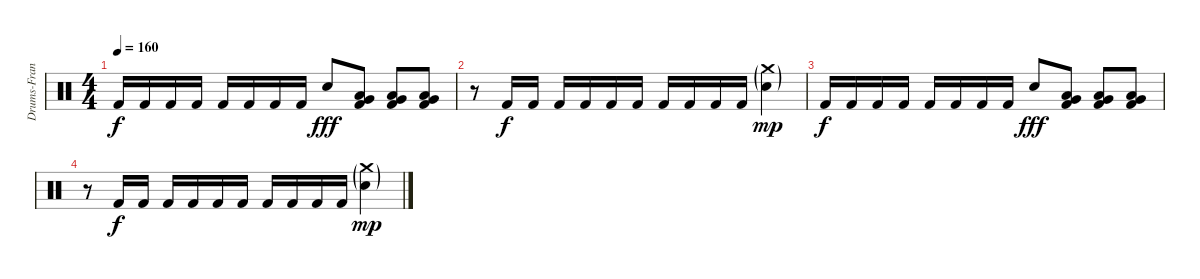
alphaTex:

\track ("Drums-Francis Mark" "Drums-Fran") {instrument percussion}
\staff {score}
\articulation defaults
\ts (4 4)
\tempo 160
\clef neutral
\ks c "Kick (hit) 2".16{dy f} "Kick (hit) 2".16 "Kick (hit) 2".16 "Kick (hit) 2".16 "Kick (hit) 2".16 "Kick (hit) 2".16 "Kick (hit) 2".16 "Kick (hit) 2".16 "Electric Snare (hit)".8{dy fff}
("Very Low Tom (hit)" "Low Tom (hit)" "Kick (hit) 2").8 ("Very Low Tom (hit)" "Low Tom (hit)" "Kick (hit) 2").8 ("Very Low Tom (hit)" "Low Tom (hit)" "Kick (hit) 2").8 |
r.8 "Kick (hit) 2".16{dy f} "Kick (hit) 2".16 "Kick (hit) 2".16 "Kick (hit) 2".16 "Kick (hit) 2".16 "Kick (hit) 2".16 "Kick (hit) 2".16 "Kick (hit) 2".16 "Kick (hit) 2".16 "Kick (hit) 2".16 ("Crash medium (hit)"{g} "Electric Snare (hit)"{g}).4{dy mp} |
"Kick (hit) 2".16{dy f} "Kick (hit) 2".16 "Kick (hit) 2".16 "Kick (hit) 2".16 "Kick (hit) 2".16 "Kick (hit) 2".16 "Kick (hit) 2".16 "Kick (hit) 2".16 "Electric Snare (hit)".8{dy fff} ("Very Low Tom (hit)" "Low Tom (hit)" "Kick (hit) 2").8 ("Very Low Tom (hit)" "Low Tom (hit)" "Kick (hit) 2").8 ("Very Low Tom (hit)" "Low Tom (hit)" "Kick (hit) 2").8 |
r.8 "Kick (hit) 2".16{dy f} "Kick (hit) 2".16 "Kick (hit) 2".16 "Kick (hit) 2".16 "Kick (hit) 2".16 "Kick (hit) 2".16 "Kick (hit) 2".16 "Kick (hit) 2".16 "Kick (hit) 2".16 "Kick (hit) 2".16 ("Crash medium (hit)"{g} "Electric Snare (hit)"{g}).4{dy mp}
